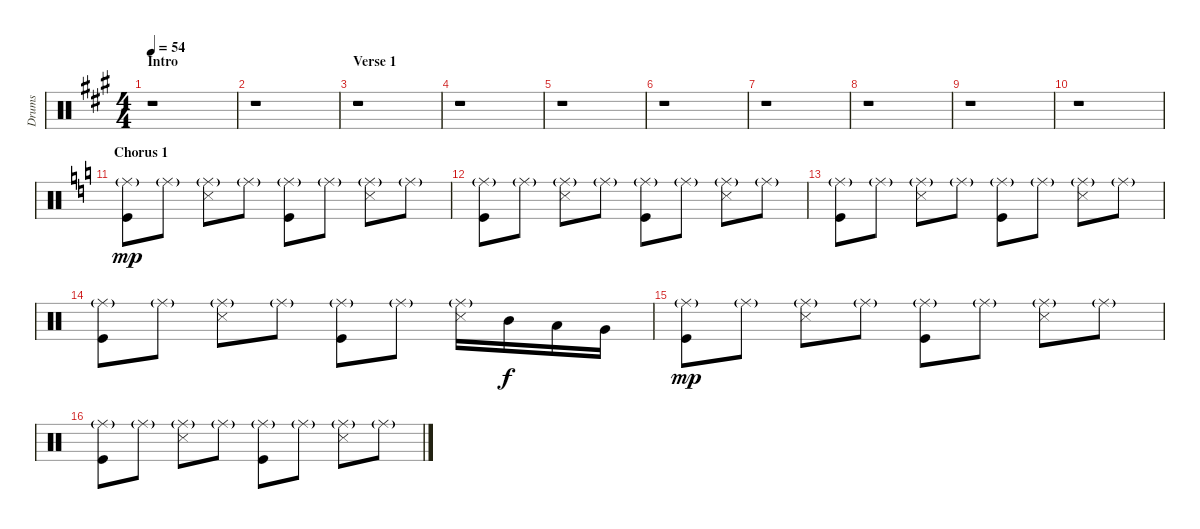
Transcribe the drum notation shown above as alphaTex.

\track ("Drums" "Drums") {instrument percussion}
\staff {score}
\articulation defaults
\ts (4 4)
\section ("" "Intro")
\tempo 54
\clef neutral
\ks a
r.1{dy mp} |
r.1 |
\section ("" "Verse 1")
r.1 |
r.1 |
r.1 |
r.1 |
r.1 |
r.1 |
r.1 |
r.1 |
\section ("" "Chorus 1")
\ks c
("Ride (middle)"{g} "Kick (hit)").8 "Ride (middle)"{g}.8 ("Ride (middle)"{g} "Snare (side stick) 3").8 "Ride (middle)"{g}.8 ("Ride (middle)"{g} "Kick (hit)").8 "Ride (middle)"{g}.8 ("Ride (middle)"{g} "Snare (side stick) 3").8 "Ride (middle)"{g}.8 |
("Ride (middle)"{g} "Kick (hit)").8 "Ride (middle)"{g}.8 ("Ride (middle)"{g} "Snare (side stick) 3").8 "Ride (middle)"{g}.8 ("Ride (middle)"{g} "Kick (hit)").8 "Ride (middle)"{g}.8 ("Ride (middle)"{g} "Snare (side stick) 3").8 "Ride (middle)"{g}.8 |
("Ride (middle)"{g} "Kick (hit)").8 "Ride (middle)"{g}.8 ("Ride (middle)"{g} "Snare (side stick) 3").8 "Ride (middle)"{g}.8 ("Ride (middle)"{g} "Kick (hit)").8 "Ride (middle)"{g}.8 ("Ride (middle)"{g} "Snare (side stick) 3").8 "Ride (middle)"{g}.8 |
("Ride (middle)"{g} "Kick (hit)").8 "Ride (middle)"{g}.8 ("Ride (middle)"{g} "Snare (side stick) 3").8 "Ride (middle)"{g}.8 ("Ride (middle)"{g} "Kick (hit)").8 "Ride (middle)"{g}.8 ("Ride (middle)"{g} "Snare (side stick) 3").16 "Mid Tom (hit)".16{dy f} "Low Tom (hit)".16 "Very Low Tom (hit)".16 |
("Ride (middle)"{g} "Kick (hit)").8{dy mp} "Ride (middle)"{g}.8 ("Ride (middle)"{g} "Snare (side stick) 3").8 "Ride (middle)"{g}.8 ("Ride (middle)"{g} "Kick (hit)").8 "Ride (middle)"{g}.8 ("Ride (middle)"{g} "Snare (side stick) 3").8 "Ride (middle)"{g}.8 |
("Ride (middle)"{g} "Kick (hit)").8 "Ride (middle)"{g}.8 ("Ride (middle)"{g} "Snare (side stick) 3").8 "Ride (middle)"{g}.8 ("Ride (middle)"{g} "Kick (hit)").8 "Ride (middle)"{g}.8 ("Ride (middle)"{g} "Snare (side stick) 3").8 "Ride (middle)"{g}.8
